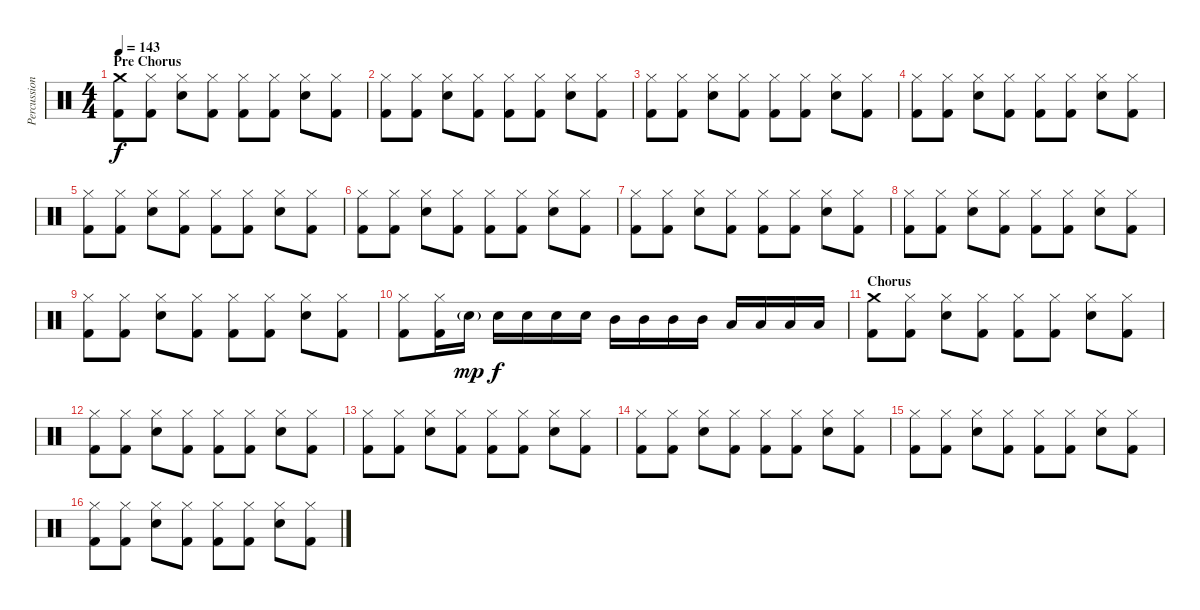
\track ("Percussion" "Percussion") {instrument percussion}
\staff {score}
\articulation defaults
\ts (4 4)
\section ("" "Pre Chorus")
\tempo 143
\clef neutral
\ks c
("Crash medium (hit)" "Kick (hit) 2").8{dy f} ("Hi-Hat (closed)" "Kick (hit) 2").8 ("Hi-Hat (closed)" "Electric Snare (hit)").8 ("Hi-Hat (closed)" "Kick (hit) 2").8 ("Hi-Hat (closed)" "Kick (hit) 2").8 ("Hi-Hat (closed)" "Kick (hit) 2").8 ("Hi-Hat (closed)" "Electric Snare (hit)").8 ("Hi-Hat (closed)" "Kick (hit) 2").8 |
("Hi-Hat (closed)" "Kick (hit) 2").8 ("Hi-Hat (closed)" "Kick (hit) 2").8 ("Hi-Hat (closed)" "Electric Snare (hit)").8 ("Hi-Hat (closed)" "Kick (hit) 2").8 ("Hi-Hat (closed)" "Kick (hit) 2").8 ("Hi-Hat (closed)" "Kick (hit) 2").8 ("Hi-Hat (closed)" "Electric Snare (hit)").8 ("Hi-Hat (closed)" "Kick (hit) 2").8 |
("Hi-Hat (closed)" "Kick (hit) 2").8 ("Hi-Hat (closed)" "Kick (hit) 2").8 ("Hi-Hat (closed)" "Electric Snare (hit)").8 ("Hi-Hat (closed)" "Kick (hit) 2").8 ("Hi-Hat (closed)" "Kick (hit) 2").8 ("Hi-Hat (closed)" "Kick (hit) 2").8 ("Hi-Hat (closed)" "Electric Snare (hit)").8 ("Hi-Hat (closed)" "Kick (hit) 2").8 |
("Hi-Hat (closed)" "Kick (hit) 2").8 ("Hi-Hat (closed)" "Kick (hit) 2").8 ("Hi-Hat (closed)" "Electric Snare (hit)").8 ("Hi-Hat (closed)" "Kick (hit) 2").8 ("Hi-Hat (closed)" "Kick (hit) 2").8 ("Hi-Hat (closed)" "Kick (hit) 2").8 ("Hi-Hat (closed)" "Electric Snare (hit)").8 ("Hi-Hat (closed)" "Kick (hit) 2").8 |
("Hi-Hat (closed)" "Kick (hit) 2").8 ("Hi-Hat (closed)" "Kick (hit) 2").8 ("Hi-Hat (closed)" "Electric Snare (hit)").8 ("Hi-Hat (closed)" "Kick (hit) 2").8 ("Hi-Hat (closed)" "Kick (hit) 2").8 ("Hi-Hat (closed)" "Kick (hit) 2").8 ("Hi-Hat (closed)" "Electric Snare (hit)").8 ("Hi-Hat (closed)" "Kick (hit) 2").8 |
("Hi-Hat (closed)" "Kick (hit) 2").8 ("Hi-Hat (closed)" "Kick (hit) 2").8 ("Hi-Hat (closed)" "Electric Snare (hit)").8 ("Hi-Hat (closed)" "Kick (hit) 2").8 ("Hi-Hat (closed)" "Kick (hit) 2").8 ("Hi-Hat (closed)" "Kick (hit) 2").8 ("Hi-Hat (closed)" "Electric Snare (hit)").8 ("Hi-Hat (closed)" "Kick (hit) 2").8 |
("Hi-Hat (closed)" "Kick (hit) 2").8 ("Hi-Hat (closed)" "Kick (hit) 2").8 ("Hi-Hat (closed)" "Electric Snare (hit)").8 ("Hi-Hat (closed)" "Kick (hit) 2").8 ("Hi-Hat (closed)" "Kick (hit) 2").8 ("Hi-Hat (closed)" "Kick (hit) 2").8 ("Hi-Hat (closed)" "Electric Snare (hit)").8 ("Hi-Hat (closed)" "Kick (hit) 2").8 |
("Hi-Hat (closed)" "Kick (hit) 2").8 ("Hi-Hat (closed)" "Kick (hit) 2").8 ("Hi-Hat (closed)" "Electric Snare (hit)").8 ("Hi-Hat (closed)" "Kick (hit) 2").8 ("Hi-Hat (closed)" "Kick (hit) 2").8 ("Hi-Hat (closed)" "Kick (hit) 2").8 ("Hi-Hat (closed)" "Electric Snare (hit)").8 ("Hi-Hat (closed)" "Kick (hit) 2").8 |
("Hi-Hat (closed)" "Kick (hit) 2").8 ("Hi-Hat (closed)" "Kick (hit) 2").8 ("Hi-Hat (closed)" "Electric Snare (hit)").8 ("Hi-Hat (closed)" "Kick (hit) 2").8 ("Hi-Hat (closed)" "Kick (hit) 2").8 ("Hi-Hat (closed)" "Kick (hit) 2").8 ("Hi-Hat (closed)" "Electric Snare (hit)").8 ("Hi-Hat (closed)" "Kick (hit) 2").8 |
("Hi-Hat (closed)" "Kick (hit) 2").8 ("Hi-Hat (closed)" "Kick (hit) 2").16 "Electric Snare (hit)"{g}.16{dy mp} "Electric Snare (hit)".16{dy f} "Electric Snare (hit)".16 "Electric Snare (hit)".16 "Electric Snare (hit)".16 "Mid Tom (hit)".16 "Mid Tom (hit)".16 "Mid Tom (hit)".16 "Mid Tom (hit)".16 "Low Tom (hit)".16 "Low Tom (hit)".16 "Low Tom (hit)".16 "Low Tom (hit)".16 |
\section ("" "Chorus")
("Crash medium (hit)" "Kick (hit) 2").8 ("Hi-Hat (closed)" "Kick (hit) 2").8 ("Hi-Hat (closed)" "Electric Snare (hit)").8 ("Hi-Hat (closed)" "Kick (hit) 2").8 ("Hi-Hat (closed)" "Kick (hit) 2").8 ("Hi-Hat (closed)" "Kick (hit) 2").8 ("Hi-Hat (closed)" "Electric Snare (hit)").8 ("Hi-Hat (closed)" "Kick (hit) 2").8 |
("Hi-Hat (closed)" "Kick (hit) 2").8 ("Hi-Hat (closed)" "Kick (hit) 2").8 ("Hi-Hat (closed)" "Electric Snare (hit)").8 ("Hi-Hat (closed)" "Kick (hit) 2").8 ("Hi-Hat (closed)" "Kick (hit) 2").8 ("Hi-Hat (closed)" "Kick (hit) 2").8 ("Hi-Hat (closed)" "Electric Snare (hit)").8 ("Hi-Hat (closed)" "Kick (hit) 2").8 |
("Hi-Hat (closed)" "Kick (hit) 2").8 ("Hi-Hat (closed)" "Kick (hit) 2").8 ("Hi-Hat (closed)" "Electric Snare (hit)").8 ("Hi-Hat (closed)" "Kick (hit) 2").8 ("Hi-Hat (closed)" "Kick (hit) 2").8 ("Hi-Hat (closed)" "Kick (hit) 2").8 ("Hi-Hat (closed)" "Electric Snare (hit)").8 ("Hi-Hat (closed)" "Kick (hit) 2").8 |
("Hi-Hat (closed)" "Kick (hit) 2").8 ("Hi-Hat (closed)" "Kick (hit) 2").8 ("Hi-Hat (closed)" "Electric Snare (hit)").8 ("Hi-Hat (closed)" "Kick (hit) 2").8 ("Hi-Hat (closed)" "Kick (hit) 2").8 ("Hi-Hat (closed)" "Kick (hit) 2").8 ("Hi-Hat (closed)" "Electric Snare (hit)").8 ("Hi-Hat (closed)" "Kick (hit) 2").8 |
("Hi-Hat (closed)" "Kick (hit) 2").8 ("Hi-Hat (closed)" "Kick (hit) 2").8 ("Hi-Hat (closed)" "Electric Snare (hit)").8 ("Hi-Hat (closed)" "Kick (hit) 2").8 ("Hi-Hat (closed)" "Kick (hit) 2").8 ("Hi-Hat (closed)" "Kick (hit) 2").8 ("Hi-Hat (closed)" "Electric Snare (hit)").8 ("Hi-Hat (closed)" "Kick (hit) 2").8 |
("Hi-Hat (closed)" "Kick (hit) 2").8 ("Hi-Hat (closed)" "Kick (hit) 2").8 ("Hi-Hat (closed)" "Electric Snare (hit)").8 ("Hi-Hat (closed)" "Kick (hit) 2").8 ("Hi-Hat (closed)" "Kick (hit) 2").8 ("Hi-Hat (closed)" "Kick (hit) 2").8 ("Hi-Hat (closed)" "Electric Snare (hit)").8 ("Hi-Hat (closed)" "Kick (hit) 2").8
